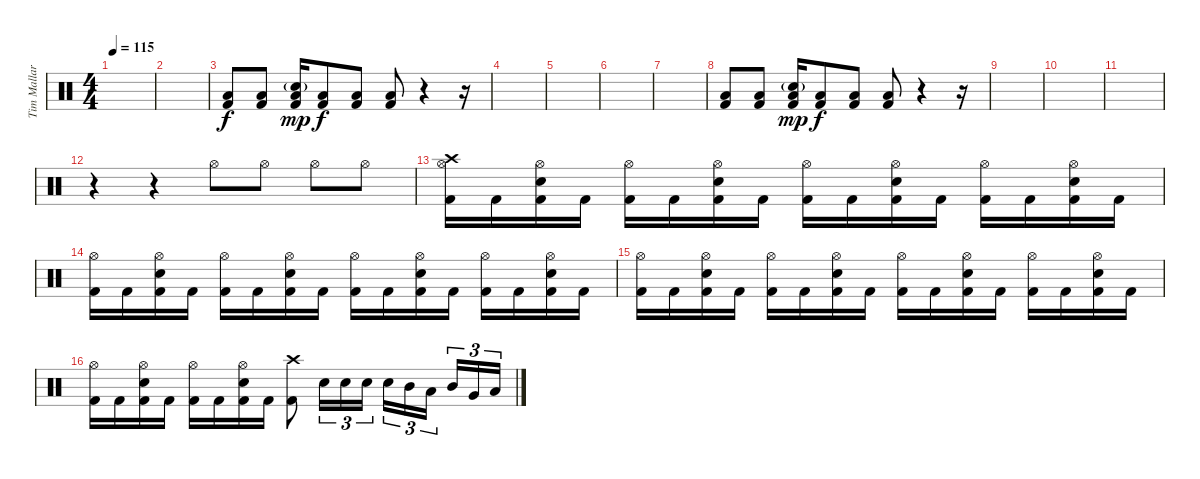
\track ("Tim Mallare" "Tim Mallar") {instrument percussion}
\staff {score}
\articulation defaults
\ts (4 4)
\tempo 115
\clef neutral
\ks c
|
|
("Low Floor Tom (hit)" "Kick (hit) 2").8 ("Low Floor Tom (hit)" "Kick (hit) 2").8 ("Low Floor Tom (hit)" "Kick (hit) 2" "Electric Snare (hit)"{g}).16{dy mp} ("Low Floor Tom (hit)" "Kick (hit) 2").8{dy f} ("Low Floor Tom (hit)" "Kick (hit) 2").8 ("Low Floor Tom (hit)" "Kick (hit) 2").8 r.4 r.16 |
|
|
|
|
("Low Floor Tom (hit)" "Kick (hit) 2").8 ("Low Floor Tom (hit)" "Kick (hit) 2").8 ("Low Floor Tom (hit)" "Kick (hit) 2" "Electric Snare (hit)"{g}).16{dy mp} ("Low Floor Tom (hit)" "Kick (hit) 2").8{dy f} ("Low Floor Tom (hit)" "Kick (hit) 2").8 ("Low Floor Tom (hit)" "Kick (hit) 2").8 r.4 r.16 |
|
|
|
r.4 r.4 "Hi-Hat (open)".8 "Hi-Hat (open)".8 "Hi-Hat (open)".8 "Hi-Hat (open)".8 |
("Crash high (hit)" "Hi-Hat (open)" "Kick (hit) 2").16 "Kick (hit) 2".16 ("Hi-Hat (open)" "Electric Snare (hit)" "Kick (hit) 2").16 "Kick (hit) 2".16 ("Hi-Hat (open)" "Kick (hit) 2").16 "Kick (hit) 2".16 ("Hi-Hat (open)" "Electric Snare (hit)" "Kick (hit) 2").16 "Kick (hit) 2".16 ("Hi-Hat (open)" "Kick (hit) 2").16 "Kick (hit) 2".16 ("Hi-Hat (open)" "Electric Snare (hit)" "Kick (hit) 2").16 "Kick (hit) 2".16 ("Hi-Hat (open)" "Kick (hit) 2").16 "Kick (hit) 2".16 ("Hi-Hat (open)" "Electric Snare (hit)" "Kick (hit) 2").16 "Kick (hit) 2".16 |
("Hi-Hat (open)" "Kick (hit) 2").16 "Kick (hit) 2".16 ("Hi-Hat (open)" "Electric Snare (hit)" "Kick (hit) 2").16 "Kick (hit) 2".16 ("Hi-Hat (open)" "Kick (hit) 2").16 "Kick (hit) 2".16 ("Hi-Hat (open)" "Electric Snare (hit)" "Kick (hit) 2").16 "Kick (hit) 2".16 ("Hi-Hat (open)" "Kick (hit) 2").16 "Kick (hit) 2".16 ("Hi-Hat (open)" "Electric Snare (hit)" "Kick (hit) 2").16 "Kick (hit) 2".16 ("Hi-Hat (open)" "Kick (hit) 2").16 "Kick (hit) 2".16 ("Hi-Hat (open)" "Electric Snare (hit)" "Kick (hit) 2").16 "Kick (hit) 2".16 |
("Hi-Hat (open)" "Kick (hit) 2").16 "Kick (hit) 2".16 ("Hi-Hat (open)" "Electric Snare (hit)" "Kick (hit) 2").16 "Kick (hit) 2".16 ("Hi-Hat (open)" "Kick (hit) 2").16 "Kick (hit) 2".16 ("Hi-Hat (open)" "Electric Snare (hit)" "Kick (hit) 2").16 "Kick (hit) 2".16 ("Hi-Hat (open)" "Kick (hit) 2").16 "Kick (hit) 2".16 ("Hi-Hat (open)" "Electric Snare (hit)" "Kick (hit) 2").16 "Kick (hit) 2".16 ("Hi-Hat (open)" "Kick (hit) 2").16 "Kick (hit) 2".16 ("Hi-Hat (open)" "Electric Snare (hit)" "Kick (hit) 2").16 "Kick (hit) 2".16 |
("Hi-Hat (open)" "Kick (hit) 2").16 "Kick (hit) 2".16 ("Hi-Hat (open)" "Electric Snare (hit)" "Kick (hit) 2").16 "Kick (hit) 2".16 ("Hi-Hat (open)" "Kick (hit) 2").16 "Kick (hit) 2".16 ("Hi-Hat (open)" "Electric Snare (hit)" "Kick (hit) 2").16 "Kick (hit) 2".16 ("Crash high (hit)" "Kick (hit) 2").8 "Electric Snare (hit)".16{tu (3 2)} "Electric Snare (hit)".16{tu (3 2)} "Electric Snare (hit)".16{tu (3 2)} "Electric Snare (hit)".16{tu (3 2)} "Mid Tom (hit)".16{tu (3 2)} "Low Tom (hit)".16{tu (3 2)} "Mid Tom (hit)".16{tu (3 2)} "Very Low Tom (hit)".16{tu (3 2)} "Low Floor Tom (hit)".16{tu (3 2)}
